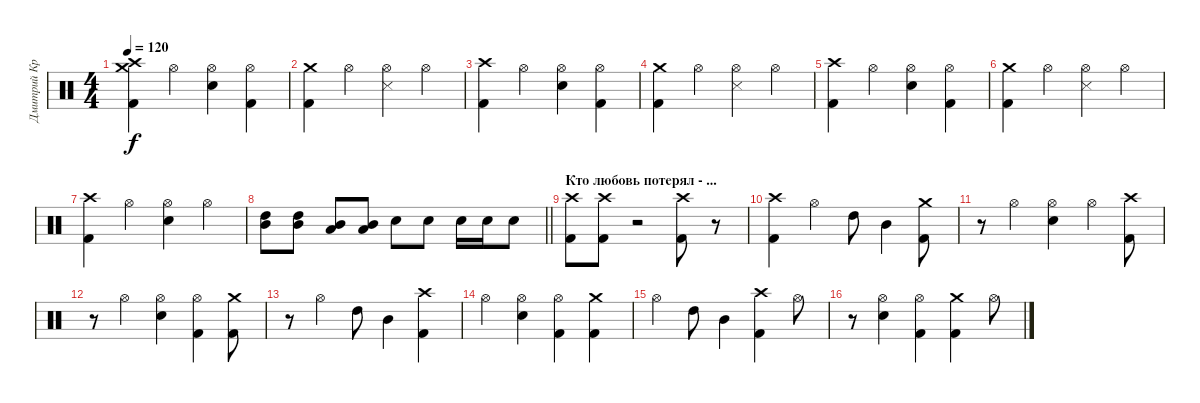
\track ("Дмитрий Кривенков       (Ударные)" "Дмитрий Кр") {instrument percussion}
\staff {score}
\articulation defaults
\ts (4 4)
\tempo 120
\clef neutral
\ks c
("Crash medium (hit)" "Crash high (hit)" "Kick (hit) 2").4{dy f} "Hi-Hat (open)".4 ("Hi-Hat (open)" "Electric Snare (hit)").4 ("Hi-Hat (open)" "Kick (hit) 2").4 |
("Crash medium (hit)" "Kick (hit) 2").4 "Hi-Hat (open)".4 ("Snare (side stick) 3" "Hi-Hat (open)").4 "Hi-Hat (open)".4 |
("Crash high (hit)" "Kick (hit) 2").4 "Hi-Hat (open)".4 ("Hi-Hat (open)" "Electric Snare (hit)").4 ("Hi-Hat (open)" "Kick (hit) 2").4 |
("Crash medium (hit)" "Kick (hit) 2").4 "Hi-Hat (open)".4 ("Snare (side stick) 3" "Hi-Hat (open)").4 "Hi-Hat (open)".4 |
("Crash high (hit)" "Kick (hit) 2").4 "Hi-Hat (open)".4 ("Hi-Hat (open)" "Electric Snare (hit)").4 ("Hi-Hat (open)" "Kick (hit) 2").4 |
("Crash medium (hit)" "Kick (hit) 2").4 "Hi-Hat (open)".4 ("Snare (side stick) 3" "Hi-Hat (open)").4 "Hi-Hat (open)".4 |
("Crash high (hit)" "Kick (hit) 2").4 "Hi-Hat (open)".4 ("Hi-Hat (open)" "Electric Snare (hit)").4 "Hi-Hat (open)".4 |
\barLineRight lightlight
("High Tom (hit)" "Mid Tom (hit)").8 ("High Tom (hit)" "Mid Tom (hit)").8 ("Mid Tom (hit)" "Low Tom (hit)").8 ("Mid Tom (hit)" "Low Tom (hit)").8 "Electric Snare (hit)".8 "Electric Snare (hit)".8 "Electric Snare (hit)".16 "Electric Snare (hit)".16 "Electric Snare (hit)".8 |
\section ("" "Кто любовь потерял - ...")
("Crash high (hit)" "Kick (hit) 2").8 ("Crash high (hit)" "Kick (hit) 2").8 r.2 ("Crash high (hit)" "Kick (hit) 2").8 r.8 |
("Crash high (hit)" "Kick (hit) 2").4 "Hi-Hat (open)".4 "High Tom (hit)".8 "Mid Tom (hit)".4 ("Crash medium (hit)" "Kick (hit) 2").8 |
r.8 "Hi-Hat (open)".4 ("Hi-Hat (open)" "Electric Snare (hit)").4 "Hi-Hat (open)".4 ("Crash high (hit)" "Kick (hit) 2").8 |
r.8 "Hi-Hat (open)".4 ("Hi-Hat (open)" "Electric Snare (hit)").4 ("Hi-Hat (open)" "Kick (hit) 2").4 ("Crash medium (hit)" "Kick (hit) 2").8 |
r.8 "Hi-Hat (open)".4 "High Tom (hit)".8 "Mid Tom (hit)".4 ("Crash high (hit)" "Kick (hit) 2").4 |
"Hi-Hat (open)".4 ("Hi-Hat (open)" "Electric Snare (hit)").4 ("Hi-Hat (open)" "Kick (hit) 2").4 ("Crash medium (hit)" "Kick (hit) 2").4 |
"Hi-Hat (open)".4 "High Tom (hit)".8 "Mid Tom (hit)".4 ("Crash high (hit)" "Kick (hit) 2").4 "Hi-Hat (open)".8 |
r.8 ("Hi-Hat (open)" "Electric Snare (hit)").4 ("Hi-Hat (open)" "Kick (hit) 2").4 ("Crash medium (hit)" "Kick (hit) 2").4 "Hi-Hat (open)".8
